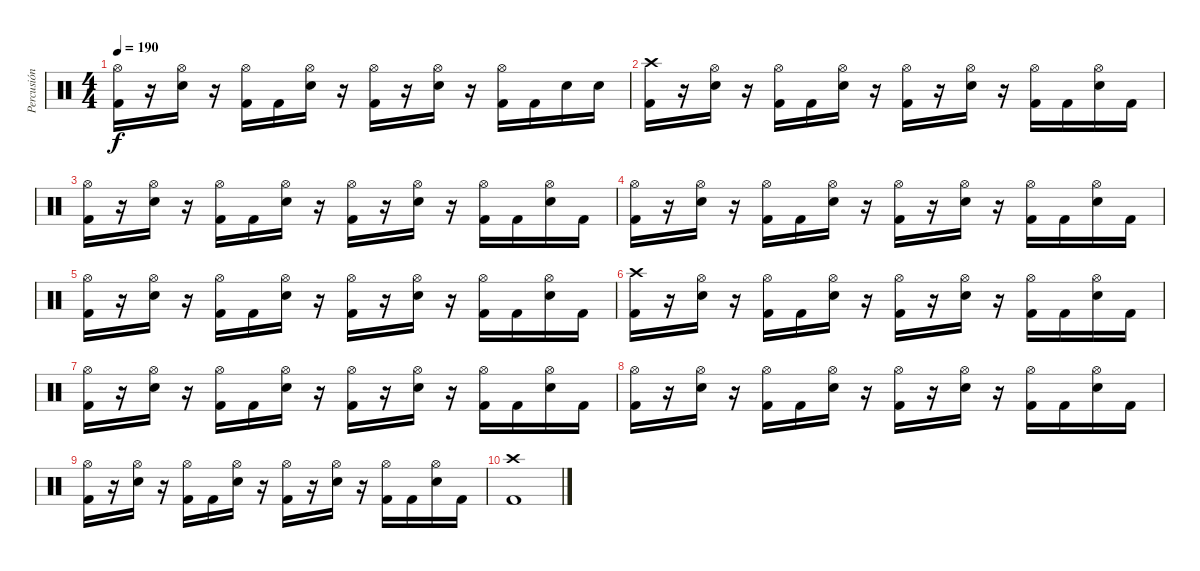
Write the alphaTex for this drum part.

\track ("Percusión" "Percusión") {instrument percussion}
\staff {score}
\articulation defaults
\ts (4 4)
\tempo 190
\clef neutral
\ks c
("Hi-Hat (open)" "Kick (hit) 2").16{dy f} r.16 ("Hi-Hat (open)" "Electric Snare (hit)").16 r.16 ("Hi-Hat (open)" "Kick (hit) 2").16 "Kick (hit) 2".16 ("Hi-Hat (open)" "Electric Snare (hit)").16 r.16 ("Hi-Hat (open)" "Kick (hit) 2").16 r.16 ("Hi-Hat (open)" "Electric Snare (hit)").16 r.16 ("Hi-Hat (open)" "Kick (hit) 2").16 "Kick (hit) 2".16 "Electric Snare (hit)".16 "Electric Snare (hit)".16 |
("Crash high (hit)" "Kick (hit) 2").16 r.16 ("Hi-Hat (open)" "Electric Snare (hit)").16 r.16 ("Hi-Hat (open)" "Kick (hit) 2").16 "Kick (hit) 2".16 ("Hi-Hat (open)" "Electric Snare (hit)").16 r.16 ("Hi-Hat (open)" "Kick (hit) 2").16 r.16 ("Hi-Hat (open)" "Electric Snare (hit)").16 r.16 ("Hi-Hat (open)" "Kick (hit) 2").16 "Kick (hit) 2".16 ("Hi-Hat (open)" "Electric Snare (hit)").16 "Kick (hit) 2".16 |
("Hi-Hat (open)" "Kick (hit) 2").16 r.16 ("Hi-Hat (open)" "Electric Snare (hit)").16 r.16 ("Hi-Hat (open)" "Kick (hit) 2").16 "Kick (hit) 2".16 ("Hi-Hat (open)" "Electric Snare (hit)").16 r.16 ("Hi-Hat (open)" "Kick (hit) 2").16 r.16 ("Hi-Hat (open)" "Electric Snare (hit)").16 r.16 ("Hi-Hat (open)" "Kick (hit) 2").16 "Kick (hit) 2".16 ("Hi-Hat (open)" "Electric Snare (hit)").16 "Kick (hit) 2".16 |
("Hi-Hat (open)" "Kick (hit) 2").16 r.16 ("Hi-Hat (open)" "Electric Snare (hit)").16 r.16 ("Hi-Hat (open)" "Kick (hit) 2").16 "Kick (hit) 2".16 ("Hi-Hat (open)" "Electric Snare (hit)").16 r.16 ("Hi-Hat (open)" "Kick (hit) 2").16 r.16 ("Hi-Hat (open)" "Electric Snare (hit)").16 r.16 ("Hi-Hat (open)" "Kick (hit) 2").16 "Kick (hit) 2".16 ("Hi-Hat (open)" "Electric Snare (hit)").16 "Kick (hit) 2".16 |
("Hi-Hat (open)" "Kick (hit) 2").16 r.16 ("Hi-Hat (open)" "Electric Snare (hit)").16 r.16 ("Hi-Hat (open)" "Kick (hit) 2").16 "Kick (hit) 2".16 ("Hi-Hat (open)" "Electric Snare (hit)").16 r.16 ("Hi-Hat (open)" "Kick (hit) 2").16 r.16 ("Hi-Hat (open)" "Electric Snare (hit)").16 r.16 ("Hi-Hat (open)" "Kick (hit) 2").16 "Kick (hit) 2".16 ("Hi-Hat (open)" "Electric Snare (hit)").16 "Kick (hit) 2".16 |
("Crash high (hit)" "Kick (hit) 2").16 r.16 ("Hi-Hat (open)" "Electric Snare (hit)").16 r.16 ("Hi-Hat (open)" "Kick (hit) 2").16 "Kick (hit) 2".16 ("Hi-Hat (open)" "Electric Snare (hit)").16 r.16 ("Hi-Hat (open)" "Kick (hit) 2").16 r.16 ("Hi-Hat (open)" "Electric Snare (hit)").16 r.16 ("Hi-Hat (open)" "Kick (hit) 2").16 "Kick (hit) 2".16 ("Hi-Hat (open)" "Electric Snare (hit)").16 "Kick (hit) 2".16 |
("Hi-Hat (open)" "Kick (hit) 2").16 r.16 ("Hi-Hat (open)" "Electric Snare (hit)").16 r.16 ("Hi-Hat (open)" "Kick (hit) 2").16 "Kick (hit) 2".16 ("Hi-Hat (open)" "Electric Snare (hit)").16 r.16 ("Hi-Hat (open)" "Kick (hit) 2").16 r.16 ("Hi-Hat (open)" "Electric Snare (hit)").16 r.16 ("Hi-Hat (open)" "Kick (hit) 2").16 "Kick (hit) 2".16 ("Hi-Hat (open)" "Electric Snare (hit)").16 "Kick (hit) 2".16 |
("Hi-Hat (open)" "Kick (hit) 2").16 r.16 ("Hi-Hat (open)" "Electric Snare (hit)").16 r.16 ("Hi-Hat (open)" "Kick (hit) 2").16 "Kick (hit) 2".16 ("Hi-Hat (open)" "Electric Snare (hit)").16 r.16 ("Hi-Hat (open)" "Kick (hit) 2").16 r.16 ("Hi-Hat (open)" "Electric Snare (hit)").16 r.16 ("Hi-Hat (open)" "Kick (hit) 2").16 "Kick (hit) 2".16 ("Hi-Hat (open)" "Electric Snare (hit)").16 "Kick (hit) 2".16 |
("Hi-Hat (open)" "Kick (hit) 2").16 r.16 ("Hi-Hat (open)" "Electric Snare (hit)").16 r.16 ("Hi-Hat (open)" "Kick (hit) 2").16 "Kick (hit) 2".16 ("Hi-Hat (open)" "Electric Snare (hit)").16 r.16 ("Hi-Hat (open)" "Kick (hit) 2").16 r.16 ("Hi-Hat (open)" "Electric Snare (hit)").16 r.16 ("Hi-Hat (open)" "Kick (hit) 2").16 "Kick (hit) 2".16 ("Hi-Hat (open)" "Electric Snare (hit)").16 "Kick (hit) 2".16 |
("Crash high (hit)" "Kick (hit) 2").1
